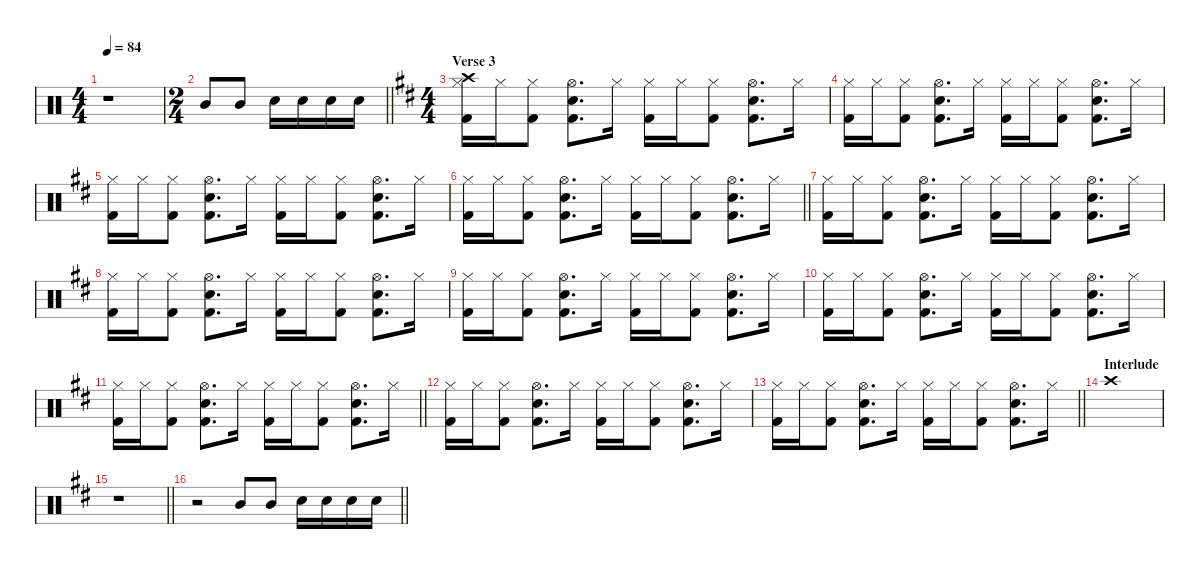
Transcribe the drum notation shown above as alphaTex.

\defaultSystemsLayout 4
\hideDynamics
\bracketExtendMode nobrackets
\singleTrackTrackNamePolicy hidden
\multiTrackTrackNamePolicy hidden
\firstSystemTrackNameMode fullname
\firstSystemTrackNameOrientation horizontal
\otherSystemsTrackNameOrientation horizontal
\track ("Drums" "drm.") {defaultSystemsLayout 4 instrument percussion}
\staff {score}
\articulation defaults
\ts (4 4)
\tempo 84
\clef neutral
\ks c
r.1{dy f beam Down} |
\ts (2 4)
\beaming (8 2 2)
\barLineRight lightlight "Mid Tom (hit)".8{beam Up} "Mid Tom (hit)".8{beam Up} "Snare (hit) 2".16{beam Down} "Snare (hit) 2".16{beam Down} "Snare (hit) 2".16{beam Down} "Snare (hit) 2".16{beam Down}
|
\ts (4 4)
\beaming (8 2 2 2 2)
\section ("" "Verse 3")
\ks d
("Kick (hit) 2"{acc forcenatural} "Hi-Hat (closed)"{acc forcenatural} "Crash high (hit)"{acc forcenatural}).16{beam Down} "Hi-Hat (closed)"{acc forcenatural}.16{beam Down} ("Kick (hit) 2"{acc forcenatural} "Hi-Hat (closed)"{acc forcenatural}).8{beam Down} ("Kick (hit) 2"{acc forcenatural} "Hi-Hat (open)"{acc forcenatural} "Snare (hit) 2"{acc forcenatural}).8{d beam Down} "Hi-Hat (closed)"{acc forcenatural}.16{beam Down} ("Kick (hit) 2"{acc forcenatural} "Hi-Hat (closed)"{acc forcenatural}).16{beam Down} "Hi-Hat (closed)"{acc forcenatural}.16{beam Down} ("Kick (hit) 2"{acc forcenatural} "Hi-Hat (closed)"{acc forcenatural}).8{beam Down} ("Kick (hit) 2"{acc forcenatural} "Hi-Hat (open)"{acc forcenatural} "Snare (hit) 2"{acc forcenatural}).8{d beam Down} "Hi-Hat (closed)"{acc forcenatural}.16{beam Down} |
("Kick (hit) 2"{acc forcenatural} "Hi-Hat (closed)"{acc forcenatural}).16{beam Down} "Hi-Hat (closed)"{acc forcenatural}.16{beam Down} ("Kick (hit) 2"{acc forcenatural} "Hi-Hat (closed)"{acc forcenatural}).8{beam Down} ("Kick (hit) 2"{acc forcenatural} "Hi-Hat (open)"{acc forcenatural} "Snare (hit) 2"{acc forcenatural}).8{d beam Down} "Hi-Hat (closed)"{acc forcenatural}.16{beam Down} ("Kick (hit) 2"{acc forcenatural} "Hi-Hat (closed)"{acc forcenatural}).16{beam Down} "Hi-Hat (closed)"{acc forcenatural}.16{beam Down} ("Kick (hit) 2"{acc forcenatural} "Hi-Hat (closed)"{acc forcenatural}).8{beam Down} ("Kick (hit) 2"{acc forcenatural} "Hi-Hat (open)"{acc forcenatural} "Snare (hit) 2"{acc forcenatural}).8{d beam Down} "Hi-Hat (closed)"{acc forcenatural}.16{beam Down} |
("Kick (hit) 2"{acc forcenatural} "Hi-Hat (closed)"{acc forcenatural}).16{beam Down} "Hi-Hat (closed)"{acc forcenatural}.16{beam Down} ("Kick (hit) 2"{acc forcenatural} "Hi-Hat (closed)"{acc forcenatural}).8{beam Down} ("Kick (hit) 2"{acc forcenatural} "Hi-Hat (open)"{acc forcenatural} "Snare (hit) 2"{acc forcenatural}).8{d beam Down} "Hi-Hat (closed)"{acc forcenatural}.16{beam Down} ("Kick (hit) 2"{acc forcenatural} "Hi-Hat (closed)"{acc forcenatural}).16{beam Down} "Hi-Hat (closed)"{acc forcenatural}.16{beam Down} ("Kick (hit) 2"{acc forcenatural} "Hi-Hat (closed)"{acc forcenatural}).8{beam Down} ("Kick (hit) 2"{acc forcenatural} "Hi-Hat (open)"{acc forcenatural} "Snare (hit) 2"{acc forcenatural}).8{d beam Down} "Hi-Hat (closed)"{acc forcenatural}.16{beam Down} |
\barLineRight lightlight
("Kick (hit) 2"{acc forcenatural} "Hi-Hat (closed)"{acc forcenatural}).16{beam Down} "Hi-Hat (closed)"{acc forcenatural}.16{beam Down} ("Kick (hit) 2"{acc forcenatural} "Hi-Hat (closed)"{acc forcenatural}).8{beam Down} ("Kick (hit) 2"{acc forcenatural} "Hi-Hat (open)"{acc forcenatural} "Snare (hit) 2"{acc forcenatural}).8{d beam Down} "Hi-Hat (closed)"{acc forcenatural}.16{beam Down} ("Kick (hit) 2"{acc forcenatural} "Hi-Hat (closed)"{acc forcenatural}).16{beam Down} "Hi-Hat (closed)"{acc forcenatural}.16{beam Down} ("Kick (hit) 2"{acc forcenatural} "Hi-Hat (closed)"{acc forcenatural}).8{beam Down} ("Kick (hit) 2"{acc forcenatural} "Hi-Hat (open)"{acc forcenatural} "Snare (hit) 2"{acc forcenatural}).8{d beam Down} "Hi-Hat (closed)"{acc forcenatural}.16{beam Down} |
("Kick (hit) 2"{acc forcenatural} "Hi-Hat (closed)"{acc forcenatural}).16{beam Down} "Hi-Hat (closed)"{acc forcenatural}.16{beam Down} ("Kick (hit) 2"{acc forcenatural} "Hi-Hat (closed)"{acc forcenatural}).8{beam Down} ("Kick (hit) 2"{acc forcenatural} "Hi-Hat (open)"{acc forcenatural} "Snare (hit) 2"{acc forcenatural}).8{d beam Down} "Hi-Hat (closed)"{acc forcenatural}.16{beam Down} ("Kick (hit) 2"{acc forcenatural} "Hi-Hat (closed)"{acc forcenatural}).16{beam Down} "Hi-Hat (closed)"{acc forcenatural}.16{beam Down} ("Kick (hit) 2"{acc forcenatural} "Hi-Hat (closed)"{acc forcenatural}).8{beam Down} ("Kick (hit) 2"{acc forcenatural} "Hi-Hat (open)"{acc forcenatural} "Snare (hit) 2"{acc forcenatural}).8{d beam Down} "Hi-Hat (closed)"{acc forcenatural}.16{beam Down} |
("Kick (hit) 2"{acc forcenatural} "Hi-Hat (closed)"{acc forcenatural}).16{beam Down} "Hi-Hat (closed)"{acc forcenatural}.16{beam Down} ("Kick (hit) 2"{acc forcenatural} "Hi-Hat (closed)"{acc forcenatural}).8{beam Down} ("Kick (hit) 2"{acc forcenatural} "Hi-Hat (open)"{acc forcenatural} "Snare (hit) 2"{acc forcenatural}).8{d beam Down} "Hi-Hat (closed)"{acc forcenatural}.16{beam Down} ("Kick (hit) 2"{acc forcenatural} "Hi-Hat (closed)"{acc forcenatural}).16{beam Down} "Hi-Hat (closed)"{acc forcenatural}.16{beam Down} ("Kick (hit) 2"{acc forcenatural} "Hi-Hat (closed)"{acc forcenatural}).8{beam Down} ("Kick (hit) 2"{acc forcenatural} "Hi-Hat (open)"{acc forcenatural} "Snare (hit) 2"{acc forcenatural}).8{d beam Down} "Hi-Hat (closed)"{acc forcenatural}.16{beam Down} |
("Kick (hit) 2"{acc forcenatural} "Hi-Hat (closed)"{acc forcenatural}).16{beam Down} "Hi-Hat (closed)"{acc forcenatural}.16{beam Down} ("Kick (hit) 2"{acc forcenatural} "Hi-Hat (closed)"{acc forcenatural}).8{beam Down} ("Kick (hit) 2"{acc forcenatural} "Hi-Hat (open)"{acc forcenatural} "Snare (hit) 2"{acc forcenatural}).8{d beam Down} "Hi-Hat (closed)"{acc forcenatural}.16{beam Down} ("Kick (hit) 2"{acc forcenatural} "Hi-Hat (closed)"{acc forcenatural}).16{beam Down} "Hi-Hat (closed)"{acc forcenatural}.16{beam Down} ("Kick (hit) 2"{acc forcenatural} "Hi-Hat (closed)"{acc forcenatural}).8{beam Down} ("Kick (hit) 2"{acc forcenatural} "Hi-Hat (open)"{acc forcenatural} "Snare (hit) 2"{acc forcenatural}).8{d beam Down} "Hi-Hat (closed)"{acc forcenatural}.16{beam Down} |
("Kick (hit) 2"{acc forcenatural} "Hi-Hat (closed)"{acc forcenatural}).16{beam Down} "Hi-Hat (closed)"{acc forcenatural}.16{beam Down} ("Kick (hit) 2"{acc forcenatural} "Hi-Hat (closed)"{acc forcenatural}).8{beam Down} ("Kick (hit) 2"{acc forcenatural} "Hi-Hat (open)"{acc forcenatural} "Snare (hit) 2"{acc forcenatural}).8{d beam Down} "Hi-Hat (closed)"{acc forcenatural}.16{beam Down} ("Kick (hit) 2"{acc forcenatural} "Hi-Hat (closed)"{acc forcenatural}).16{beam Down} "Hi-Hat (closed)"{acc forcenatural}.16{beam Down} ("Kick (hit) 2"{acc forcenatural} "Hi-Hat (closed)"{acc forcenatural}).8{beam Down} ("Kick (hit) 2"{acc forcenatural} "Hi-Hat (open)"{acc forcenatural} "Snare (hit) 2"{acc forcenatural}).8{d beam Down} "Hi-Hat (closed)"{acc forcenatural}.16{beam Down} |
\barLineRight lightlight
("Kick (hit) 2"{acc forcenatural} "Hi-Hat (closed)"{acc forcenatural}).16{beam Down} "Hi-Hat (closed)"{acc forcenatural}.16{beam Down} ("Kick (hit) 2"{acc forcenatural} "Hi-Hat (closed)"{acc forcenatural}).8{beam Down} ("Kick (hit) 2"{acc forcenatural} "Hi-Hat (open)"{acc forcenatural} "Snare (hit) 2"{acc forcenatural}).8{d beam Down} "Hi-Hat (closed)"{acc forcenatural}.16{beam Down} ("Kick (hit) 2"{acc forcenatural} "Hi-Hat (closed)"{acc forcenatural}).16{beam Down} "Hi-Hat (closed)"{acc forcenatural}.16{beam Down} ("Kick (hit) 2"{acc forcenatural} "Hi-Hat (closed)"{acc forcenatural}).8{beam Down} ("Kick (hit) 2"{acc forcenatural} "Hi-Hat (open)"{acc forcenatural} "Snare (hit) 2"{acc forcenatural}).8{d beam Down} "Hi-Hat (closed)"{acc forcenatural}.16{beam Down} |
("Kick (hit) 2"{acc forcenatural} "Hi-Hat (closed)"{acc forcenatural}).16{beam Down} "Hi-Hat (closed)"{acc forcenatural}.16{beam Down} ("Kick (hit) 2"{acc forcenatural} "Hi-Hat (closed)"{acc forcenatural}).8{beam Down} ("Kick (hit) 2"{acc forcenatural} "Hi-Hat (open)"{acc forcenatural} "Snare (hit) 2"{acc forcenatural}).8{d beam Down} "Hi-Hat (closed)"{acc forcenatural}.16{beam Down} ("Kick (hit) 2"{acc forcenatural} "Hi-Hat (closed)"{acc forcenatural}).16{beam Down} "Hi-Hat (closed)"{acc forcenatural}.16{beam Down} ("Kick (hit) 2"{acc forcenatural} "Hi-Hat (closed)"{acc forcenatural}).8{beam Down} ("Kick (hit) 2"{acc forcenatural} "Hi-Hat (open)"{acc forcenatural} "Snare (hit) 2"{acc forcenatural}).8{d beam Down} "Hi-Hat (closed)"{acc forcenatural}.16{beam Down} |
\barLineRight lightlight
("Kick (hit) 2"{acc forcenatural} "Hi-Hat (closed)"{acc forcenatural}).16{beam Down} "Hi-Hat (closed)"{acc forcenatural}.16{beam Down} ("Kick (hit) 2"{acc forcenatural} "Hi-Hat (closed)"{acc forcenatural}).8{beam Down} ("Kick (hit) 2"{acc forcenatural} "Hi-Hat (open)"{acc forcenatural} "Snare (hit) 2"{acc forcenatural}).8{d beam Down} "Hi-Hat (closed)"{acc forcenatural}.16{beam Down} ("Kick (hit) 2"{acc forcenatural} "Hi-Hat (closed)"{acc forcenatural}).16{beam Down} "Hi-Hat (closed)"{acc forcenatural}.16{beam Down} ("Kick (hit) 2"{acc forcenatural} "Hi-Hat (closed)"{acc forcenatural}).8{beam Down} ("Kick (hit) 2"{acc forcenatural} "Hi-Hat (open)"{acc forcenatural} "Snare (hit) 2"{acc forcenatural}).8{d beam Down} "Hi-Hat (closed)"{acc forcenatural}.16{beam Down} |
\section ("" "Interlude")
"Crash high (hit)"{acc forcenatural}.1{beam Down} |
\barLineRight lightlight
r.1{beam Down} |
\barLineRight lightlight
r.2{beam Down} "Mid Tom (hit)"{acc forcenatural}.8{beam Up} "Mid Tom (hit)"{acc forcenatural}.8{beam Up} "Snare (hit) 2"{acc forcenatural}.16{beam Down} "Snare (hit) 2"{acc forcenatural}.16{beam Down} "Snare (hit) 2"{acc forcenatural}.16{beam Down} "Snare (hit) 2"{acc forcenatural}.16{beam Down}
